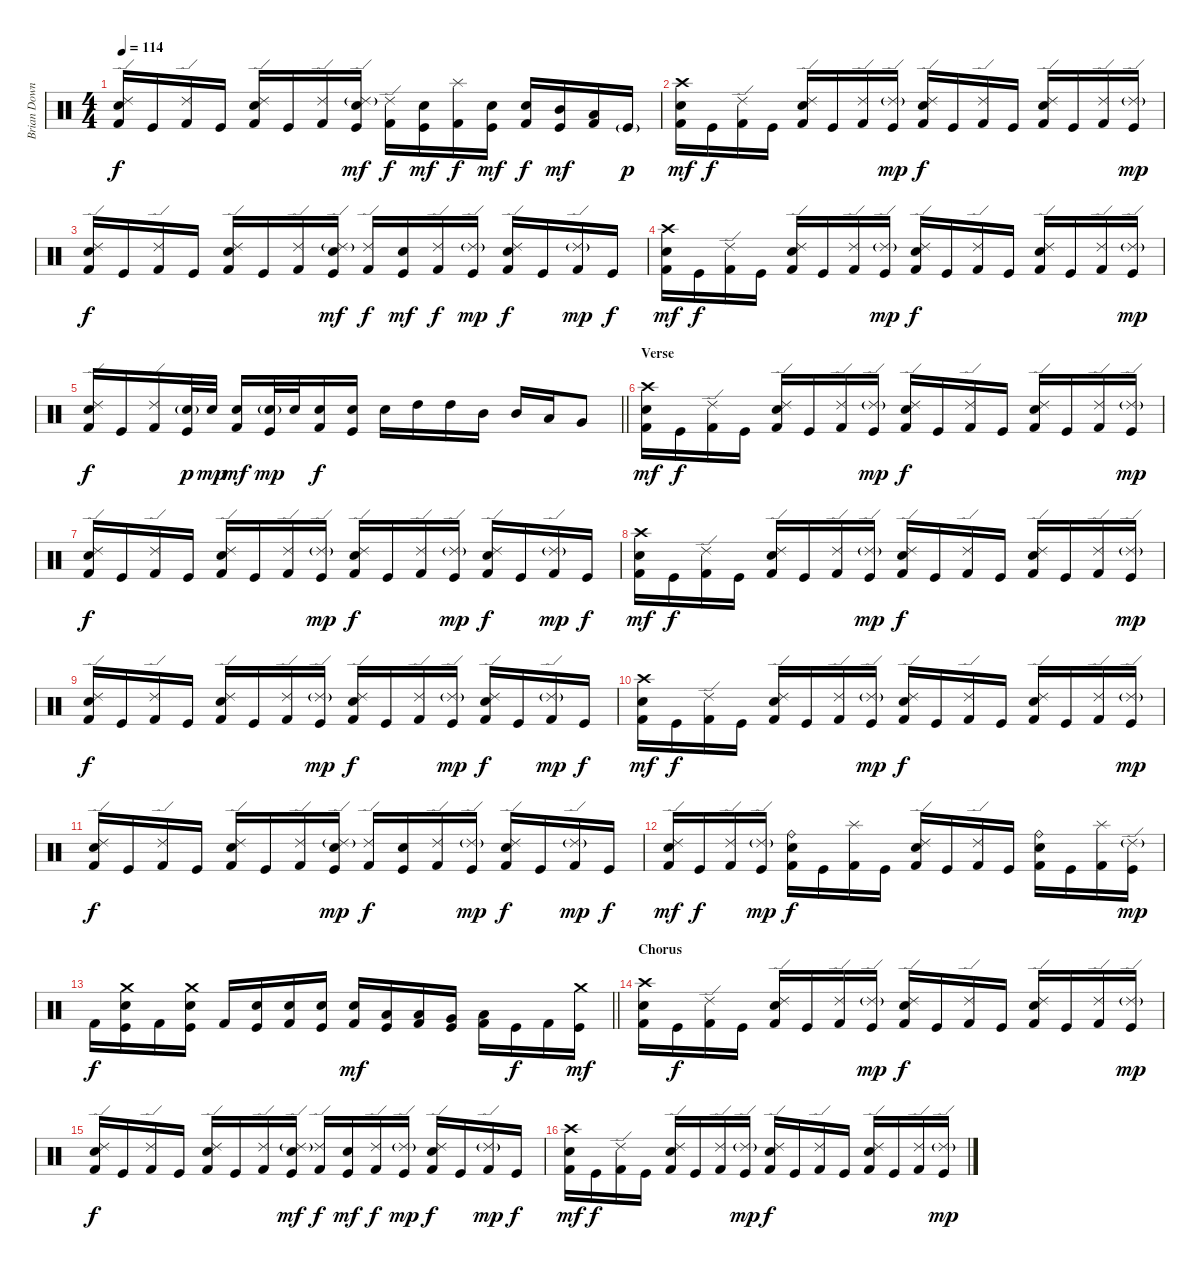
\track ("Brian Downey" "Brian Down") {instrument percussion}
\staff {score}
\articulation defaults
\ts (4 4)
\tempo 114
\clef neutral
\ks c
("Ride (edge) 2" "Electric Snare (hit)" "Kick (hit) 2").16{dy f} "Kick (hit)".16 ("Ride (edge) 2" "Kick (hit) 2").16 "Kick (hit)".16 ("Ride (edge) 2" "Electric Snare (hit)" "Kick (hit) 2").16 "Kick (hit)".16 ("Ride (edge) 2" "Kick (hit) 2").16 ("Ride (edge) 2"{g} "Electric Snare (hit)" "Kick (hit)").16{dy mf} ("Ride (edge) 2" "Kick (hit) 2").16{dy f} ("Electric Snare (hit)" "Kick (hit)").16{dy mf} ("Splash (hit)" "Kick (hit) 2").16{dy f} ("Electric Snare (hit)" "Kick (hit)").16{dy mf} ("Electric Snare (hit)" "Kick (hit) 2").16{dy f} ("Mid Tom (hit)" "Kick (hit)").16{dy mf} ("Low Tom (hit)" "Kick (hit) 2").16 "Kick (hit)"{g}.16{dy p} |
("Crash high (hit)" "Electric Snare (hit)" "Kick (hit) 2").16{dy mf} "Kick (hit)".16{dy f} ("Ride (edge) 2" "Kick (hit) 2").16 "Kick (hit)".16 ("Ride (edge) 2" "Electric Snare (hit)" "Kick (hit) 2").16 "Kick (hit)".16 ("Ride (edge) 2" "Kick (hit) 2").16 ("Ride (edge) 2"{g} "Kick (hit)").16{dy mp} ("Ride (edge) 2" "Electric Snare (hit)" "Kick (hit) 2").16{dy f} "Kick (hit)".16 ("Ride (edge) 2" "Kick (hit) 2").16 "Kick (hit)".16 ("Ride (edge) 2" "Electric Snare (hit)" "Kick (hit) 2").16 "Kick (hit)".16 ("Ride (edge) 2" "Kick (hit) 2").16 ("Ride (edge) 2"{g} "Kick (hit)").16{dy mp} |
("Ride (edge) 2" "Electric Snare (hit)" "Kick (hit) 2").16{dy f} "Kick (hit)".16 ("Ride (edge) 2" "Kick (hit) 2").16 "Kick (hit)".16 ("Ride (edge) 2" "Electric Snare (hit)" "Kick (hit) 2").16 "Kick (hit)".16 ("Ride (edge) 2" "Kick (hit) 2").16 ("Ride (edge) 2"{g} "Electric Snare (hit)" "Kick (hit)").16{dy mf} ("Ride (edge) 2" "Kick (hit) 2").16{dy f} ("Electric Snare (hit)" "Kick (hit)").16{dy mf} ("Ride (edge) 2" "Kick (hit) 2").16{dy f} ("Ride (edge) 2"{g} "Kick (hit)").16{dy mp} ("Ride (edge) 2" "Electric Snare (hit)" "Kick (hit) 2").16{dy f} "Kick (hit)".16 ("Ride (edge) 2"{g} "Kick (hit) 2").16{dy mp} "Kick (hit)".16{dy f} |
("Crash high (hit)" "Electric Snare (hit)" "Kick (hit) 2").16{dy mf} "Kick (hit)".16{dy f} ("Ride (edge) 2" "Kick (hit) 2").16 "Kick (hit)".16 ("Ride (edge) 2" "Electric Snare (hit)" "Kick (hit) 2").16 "Kick (hit)".16 ("Ride (edge) 2" "Kick (hit) 2").16 ("Ride (edge) 2"{g} "Kick (hit)").16{dy mp} ("Ride (edge) 2" "Electric Snare (hit)" "Kick (hit) 2").16{dy f} "Kick (hit)".16 ("Ride (edge) 2" "Kick (hit) 2").16 "Kick (hit)".16 ("Ride (edge) 2" "Electric Snare (hit)" "Kick (hit) 2").16 "Kick (hit)".16 ("Ride (edge) 2" "Kick (hit) 2").16 ("Ride (edge) 2"{g} "Kick (hit)").16{dy mp} |
\barLineRight lightlight
("Ride (edge) 2" "Electric Snare (hit)" "Kick (hit) 2").16{dy f} "Kick (hit)".16 ("Ride (edge) 2" "Kick (hit) 2").16 ("Electric Snare (hit)"{g} "Kick (hit)").32{dy p} "Electric Snare (hit)".32{dy mp} ("Electric Snare (hit)" "Kick (hit) 2").16{dy mf} ("Electric Snare (hit)"{g} "Kick (hit)").32{dy mp} "Electric Snare (hit)".32 ("Electric Snare (hit)" "Kick (hit) 2").16{dy f} ("Electric Snare (hit)" "Kick (hit)").16 "Electric Snare (hit)".16 "High Tom (hit)".16 "High Tom (hit)".16 "Mid Tom (hit)".16 "Mid Tom (hit)".16 "Low Tom (hit)".16 "Very Low Tom (hit)".8 |
\section ("" "Verse")
("Crash high (hit)" "Electric Snare (hit)" "Kick (hit) 2").16{dy mf} "Kick (hit)".16{dy f} ("Ride (edge) 2" "Kick (hit) 2").16 "Kick (hit)".16 ("Ride (edge) 2" "Electric Snare (hit)" "Kick (hit) 2").16 "Kick (hit)".16 ("Ride (edge) 2" "Kick (hit) 2").16 ("Ride (edge) 2"{g} "Kick (hit)").16{dy mp} ("Ride (edge) 2" "Electric Snare (hit)" "Kick (hit) 2").16{dy f} "Kick (hit)".16 ("Ride (edge) 2" "Kick (hit) 2").16 "Kick (hit)".16 ("Ride (edge) 2" "Electric Snare (hit)" "Kick (hit) 2").16 "Kick (hit)".16 ("Ride (edge) 2" "Kick (hit) 2").16 ("Ride (edge) 2"{g} "Kick (hit)").16{dy mp} |
("Ride (edge) 2" "Electric Snare (hit)" "Kick (hit) 2").16{dy f} "Kick (hit)".16 ("Ride (edge) 2" "Kick (hit) 2").16 "Kick (hit)".16 ("Ride (edge) 2" "Electric Snare (hit)" "Kick (hit) 2").16 "Kick (hit)".16 ("Ride (edge) 2" "Kick (hit) 2").16 ("Ride (edge) 2"{g} "Kick (hit)").16{dy mp} ("Ride (edge) 2" "Electric Snare (hit)" "Kick (hit) 2").16{dy f} "Kick (hit)".16 ("Ride (edge) 2" "Kick (hit) 2").16 ("Ride (edge) 2"{g} "Kick (hit)").16{dy mp} ("Ride (edge) 2" "Electric Snare (hit)" "Kick (hit) 2").16{dy f} "Kick (hit)".16 ("Ride (edge) 2"{g} "Kick (hit) 2").16{dy mp} "Kick (hit)".16{dy f} |
("Crash high (hit)" "Electric Snare (hit)" "Kick (hit) 2").16{dy mf} "Kick (hit)".16{dy f} ("Ride (edge) 2" "Kick (hit) 2").16 "Kick (hit)".16 ("Ride (edge) 2" "Electric Snare (hit)" "Kick (hit) 2").16 "Kick (hit)".16 ("Ride (edge) 2" "Kick (hit) 2").16 ("Ride (edge) 2"{g} "Kick (hit)").16{dy mp} ("Ride (edge) 2" "Electric Snare (hit)" "Kick (hit) 2").16{dy f} "Kick (hit)".16 ("Ride (edge) 2" "Kick (hit) 2").16 "Kick (hit)".16 ("Ride (edge) 2" "Electric Snare (hit)" "Kick (hit) 2").16 "Kick (hit)".16 ("Ride (edge) 2" "Kick (hit) 2").16 ("Ride (edge) 2"{g} "Kick (hit)").16{dy mp} |
("Ride (edge) 2" "Electric Snare (hit)" "Kick (hit) 2").16{dy f} "Kick (hit)".16 ("Ride (edge) 2" "Kick (hit) 2").16 "Kick (hit)".16 ("Ride (edge) 2" "Electric Snare (hit)" "Kick (hit) 2").16 "Kick (hit)".16 ("Ride (edge) 2" "Kick (hit) 2").16 ("Ride (edge) 2"{g} "Kick (hit)").16{dy mp} ("Ride (edge) 2" "Electric Snare (hit)" "Kick (hit) 2").16{dy f} "Kick (hit)".16 ("Ride (edge) 2" "Kick (hit) 2").16 ("Ride (edge) 2"{g} "Kick (hit)").16{dy mp} ("Ride (edge) 2" "Electric Snare (hit)" "Kick (hit) 2").16{dy f} "Kick (hit)".16 ("Ride (edge) 2"{g} "Kick (hit) 2").16{dy mp} "Kick (hit)".16{dy f} |
("Crash high (hit)" "Electric Snare (hit)" "Kick (hit) 2").16{dy mf} "Kick (hit)".16{dy f} ("Ride (edge) 2" "Kick (hit) 2").16 "Kick (hit)".16 ("Ride (edge) 2" "Electric Snare (hit)" "Kick (hit) 2").16 "Kick (hit)".16 ("Ride (edge) 2" "Kick (hit) 2").16 ("Ride (edge) 2"{g} "Kick (hit)").16{dy mp} ("Ride (edge) 2" "Electric Snare (hit)" "Kick (hit) 2").16{dy f} "Kick (hit)".16 ("Ride (edge) 2" "Kick (hit) 2").16 "Kick (hit)".16 ("Ride (edge) 2" "Electric Snare (hit)" "Kick (hit) 2").16 "Kick (hit)".16 ("Ride (edge) 2" "Kick (hit) 2").16 ("Ride (edge) 2"{g} "Kick (hit)").16{dy mp} |
("Ride (edge) 2" "Electric Snare (hit)" "Kick (hit) 2").16{dy f} "Kick (hit)".16 ("Ride (edge) 2" "Kick (hit) 2").16 "Kick (hit)".16 ("Ride (edge) 2" "Electric Snare (hit)" "Kick (hit) 2").16 "Kick (hit)".16 ("Ride (edge) 2" "Kick (hit) 2").16 ("Ride (edge) 2"{g} "Electric Snare (hit)" "Kick (hit)").16{dy mp} ("Ride (edge) 2" "Kick (hit) 2").16{dy f} ("Electric Snare (hit)" "Kick (hit)").16 ("Ride (edge) 2" "Kick (hit) 2").16 ("Ride (edge) 2"{g} "Kick (hit)").16{dy mp} ("Ride (edge) 2" "Electric Snare (hit)" "Kick (hit) 2").16{dy f} "Kick (hit)".16 ("Ride (edge) 2"{g} "Kick (hit) 2").16{dy mp} "Kick (hit)".16{dy f} |
("Ride (edge) 2" "Electric Snare (hit)" "Kick (hit) 2").16{dy mf} "Kick (hit)".16{dy f} ("Ride (edge) 2" "Kick (hit) 2").16 ("Ride (edge) 2"{g} "Kick (hit)").16{dy mp} ("Ride (bell)" "Electric Snare (hit)" "Kick (hit) 2").16{dy f} "Kick (hit)".16 ("Splash (hit)" "Kick (hit) 2").16 "Kick (hit)".16 ("Ride (edge) 2" "Electric Snare (hit)" "Kick (hit) 2").16 "Kick (hit)".16 ("Ride (edge) 2" "Kick (hit) 2").16 "Kick (hit)".16 ("Ride (bell)" "Electric Snare (hit)" "Kick (hit) 2").16 "Kick (hit)".16 ("Splash (hit)" "Kick (hit) 2").16 ("Ride (edge) 2"{g} "Kick (hit)").16{dy mp} |
\barLineRight lightlight "Kick (hit) 2".16{dy f}
("Crash medium (hit)" "Electric Snare (hit)" "Kick (hit)").16 "Kick (hit) 2".16 ("Crash medium (hit)" "Electric Snare (hit)" "Kick (hit)").16 "Kick (hit) 2".16 ("Electric Snare (hit)" "Kick (hit)").16 ("Electric Snare (hit)" "Kick (hit) 2").16 ("Electric Snare (hit)" "Kick (hit)").16 ("Electric Snare (hit)" "Kick (hit) 2").16{dy mf} ("Low Tom (hit)" "Kick (hit)").16 ("Low Tom (hit)" "Kick (hit) 2").16 ("Very Low Tom (hit)" "Kick (hit)").16 ("Low Floor Tom (hit)" "Kick (hit) 2").16 "Kick (hit)".16{dy f} "Kick (hit) 2".16 ("Crash medium (hit)" "Kick (hit)").16{dy mf} |
\section ("" "Chorus")
("Crash high (hit)" "Electric Snare (hit)" "Kick (hit) 2").16 "Kick (hit)".16{dy f} ("Ride (edge) 2" "Kick (hit) 2").16 "Kick (hit)".16 ("Ride (edge) 2" "Electric Snare (hit)" "Kick (hit) 2").16 "Kick (hit)".16 ("Ride (edge) 2" "Kick (hit) 2").16 ("Ride (edge) 2"{g} "Kick (hit)").16{dy mp} ("Ride (edge) 2" "Electric Snare (hit)" "Kick (hit) 2").16{dy f} "Kick (hit)".16 ("Ride (edge) 2" "Kick (hit) 2").16 "Kick (hit)".16 ("Ride (edge) 2" "Electric Snare (hit)" "Kick (hit) 2").16 "Kick (hit)".16 ("Ride (edge) 2" "Kick (hit) 2").16 ("Ride (edge) 2"{g} "Kick (hit)").16{dy mp} |
("Ride (edge) 2" "Electric Snare (hit)" "Kick (hit) 2").16{dy f} "Kick (hit)".16 ("Ride (edge) 2" "Kick (hit) 2").16 "Kick (hit)".16 ("Ride (edge) 2" "Electric Snare (hit)" "Kick (hit) 2").16 "Kick (hit)".16 ("Ride (edge) 2" "Kick (hit) 2").16 ("Ride (edge) 2"{g} "Electric Snare (hit)" "Kick (hit)").16{dy mf} ("Ride (edge) 2" "Kick (hit) 2").16{dy f} ("Electric Snare (hit)" "Kick (hit)").16{dy mf} ("Ride (edge) 2" "Kick (hit) 2").16{dy f} ("Ride (edge) 2"{g} "Kick (hit)").16{dy mp} ("Ride (edge) 2" "Electric Snare (hit)" "Kick (hit) 2").16{dy f} "Kick (hit)".16 ("Ride (edge) 2"{g} "Kick (hit) 2").16{dy mp} "Kick (hit)".16{dy f} |
("Crash high (hit)" "Electric Snare (hit)" "Kick (hit) 2").16{dy mf} "Kick (hit)".16{dy f} ("Ride (edge) 2" "Kick (hit) 2").16 "Kick (hit)".16 ("Ride (edge) 2" "Electric Snare (hit)" "Kick (hit) 2").16 "Kick (hit)".16 ("Ride (edge) 2" "Kick (hit) 2").16 ("Ride (edge) 2"{g} "Kick (hit)").16{dy mp} ("Ride (edge) 2" "Electric Snare (hit)" "Kick (hit) 2").16{dy f} "Kick (hit)".16 ("Ride (edge) 2" "Kick (hit) 2").16 "Kick (hit)".16 ("Ride (edge) 2" "Electric Snare (hit)" "Kick (hit) 2").16 "Kick (hit)".16 ("Ride (edge) 2" "Kick (hit) 2").16 ("Ride (edge) 2"{g} "Kick (hit)").16{dy mp}
